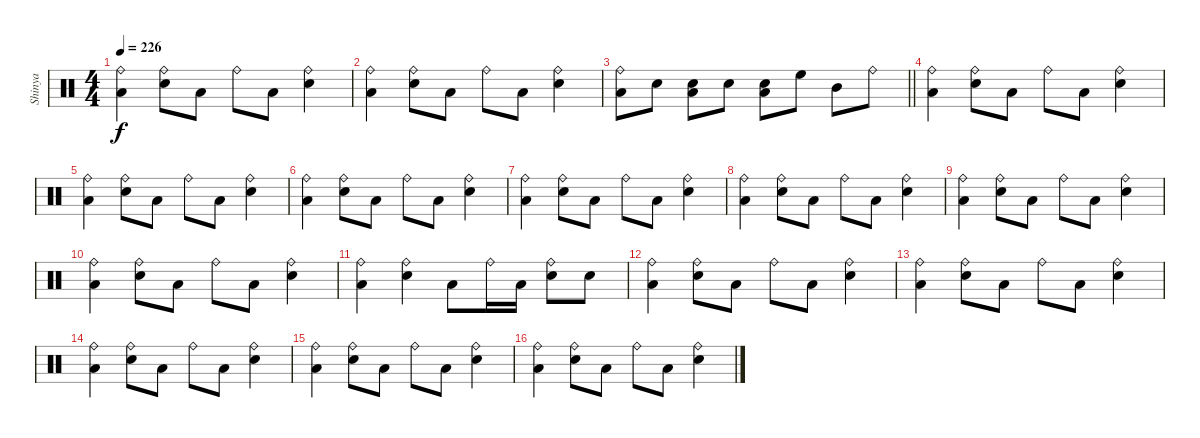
\track ("Shinya" "Shinya") {instrument percussion}
\staff {score}
\articulation defaults
\ts (4 4)
\tempo 226
\clef neutral
\ks c
("Ride (bell)" "Low Floor Tom (hit)").4{dy f} ("Ride (bell)" "Snare (hit) 2").8 "Low Floor Tom (hit)".8 "Ride (bell)".8 "Low Floor Tom (hit)".8 ("Ride (bell)" "Snare (hit) 2").4 |
("Ride (bell)" "Low Floor Tom (hit)").4 ("Ride (bell)" "Snare (hit) 2").8 "Low Floor Tom (hit)".8 "Ride (bell)".8 "Low Floor Tom (hit)".8 ("Ride (bell)" "Snare (hit) 2").4 |
\barLineRight lightlight
("Ride (bell)" "Low Floor Tom (hit)").8 "Snare (hit) 2".8 ("Snare (hit) 2" "Low Floor Tom (hit)").8 "Snare (hit) 2".8 ("Low Floor Tom (hit)" "Snare (hit) 2").8 "High Floor Tom (hit)".8 "Mid Tom (hit)".8 "Ride (bell)".8 |
("Ride (bell)" "Low Floor Tom (hit)").4 ("Ride (bell)" "Snare (hit) 2").8 "Low Floor Tom (hit)".8 "Ride (bell)".8 "Low Floor Tom (hit)".8 ("Ride (bell)" "Snare (hit) 2").4 |
("Ride (bell)" "Low Floor Tom (hit)").4 ("Ride (bell)" "Snare (hit) 2").8 "Low Floor Tom (hit)".8 "Ride (bell)".8 "Low Floor Tom (hit)".8 ("Ride (bell)" "Snare (hit) 2").4 |
("Ride (bell)" "Low Floor Tom (hit)").4 ("Ride (bell)" "Snare (hit) 2").8 "Low Floor Tom (hit)".8 "Ride (bell)".8 "Low Floor Tom (hit)".8 ("Ride (bell)" "Snare (hit) 2").4 |
("Ride (bell)" "Low Floor Tom (hit)").4 ("Ride (bell)" "Snare (hit) 2").8 "Low Floor Tom (hit)".8 "Ride (bell)".8 "Low Floor Tom (hit)".8 ("Ride (bell)" "Snare (hit) 2").4 |
("Ride (bell)" "Low Floor Tom (hit)").4 ("Ride (bell)" "Snare (hit) 2").8 "Low Floor Tom (hit)".8 "Ride (bell)".8 "Low Floor Tom (hit)".8 ("Ride (bell)" "Snare (hit) 2").4 |
("Ride (bell)" "Low Floor Tom (hit)").4 ("Ride (bell)" "Snare (hit) 2").8 "Low Floor Tom (hit)".8 "Ride (bell)".8 "Low Floor Tom (hit)".8 ("Ride (bell)" "Snare (hit) 2").4 |
("Ride (bell)" "Low Floor Tom (hit)").4 ("Ride (bell)" "Snare (hit) 2").8 "Low Floor Tom (hit)".8 "Ride (bell)".8 "Low Floor Tom (hit)".8 ("Ride (bell)" "Snare (hit) 2").4 |
("Ride (bell)" "Low Floor Tom (hit)").4 ("Ride (bell)" "Snare (hit) 2").4 "Low Floor Tom (hit)".8 "Ride (bell)".16 "Low Floor Tom (hit)".16 ("Ride (bell)" "Snare (hit) 2").8 "Snare (hit) 2".8 |
("Ride (bell)" "Low Floor Tom (hit)").4 ("Ride (bell)" "Snare (hit) 2").8 "Low Floor Tom (hit)".8 "Ride (bell)".8 "Low Floor Tom (hit)".8 ("Ride (bell)" "Snare (hit) 2").4 |
("Ride (bell)" "Low Floor Tom (hit)").4 ("Ride (bell)" "Snare (hit) 2").8 "Low Floor Tom (hit)".8 "Ride (bell)".8 "Low Floor Tom (hit)".8 ("Ride (bell)" "Snare (hit) 2").4 |
("Ride (bell)" "Low Floor Tom (hit)").4 ("Ride (bell)" "Snare (hit) 2").8 "Low Floor Tom (hit)".8 "Ride (bell)".8 "Low Floor Tom (hit)".8 ("Ride (bell)" "Snare (hit) 2").4 |
("Ride (bell)" "Low Floor Tom (hit)").4 ("Ride (bell)" "Snare (hit) 2").8 "Low Floor Tom (hit)".8 "Ride (bell)".8 "Low Floor Tom (hit)".8 ("Ride (bell)" "Snare (hit) 2").4 |
("Ride (bell)" "Low Floor Tom (hit)").4 ("Ride (bell)" "Snare (hit) 2").8 "Low Floor Tom (hit)".8 "Ride (bell)".8 "Low Floor Tom (hit)".8 ("Ride (bell)" "Snare (hit) 2").4
